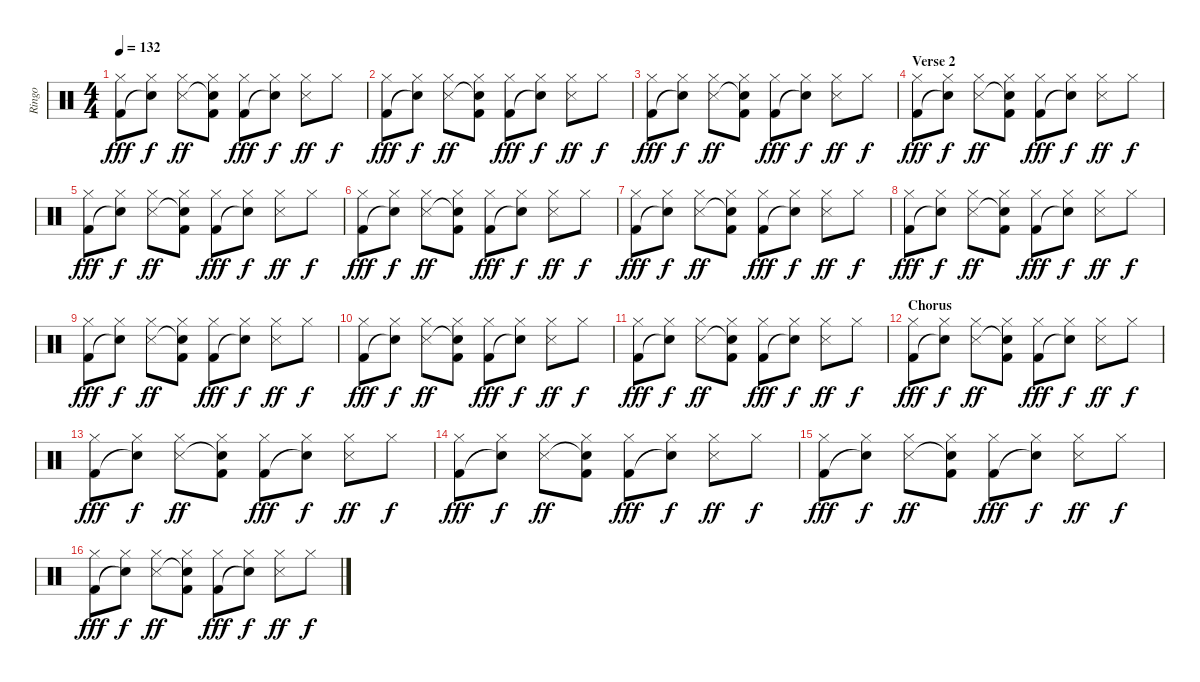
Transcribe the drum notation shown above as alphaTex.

\track ("Ringo" "Ringo") {instrument percussion}
\staff {score}
\articulation defaults
\ts (4 4)
\tempo 132
\clef neutral
\ks c
("Hi-Hat (closed)" "Kick (hit) 2").8{dy fff} ("Hi-Hat (closed)" "Snare (hit)"{t}).8{dy f} ("Hi-Hat (closed)" "Snare (side stick) 3").8{dy ff} ("Hi-Hat (closed)" "Snare (hit)"{t} "Kick (hit) 2").8 ("Hi-Hat (closed)" "Kick (hit) 2").8{dy fff} ("Hi-Hat (closed)" "Snare (hit)"{t}).8{dy f} ("Hi-Hat (closed)" "Snare (side stick) 3").8{dy ff} "Hi-Hat (closed)".8{dy f} |
("Hi-Hat (closed)" "Kick (hit) 2").8{dy fff} ("Hi-Hat (closed)" "Snare (hit)"{t}).8{dy f} ("Hi-Hat (closed)" "Snare (side stick) 3").8{dy ff} ("Hi-Hat (closed)" "Snare (hit)"{t} "Kick (hit) 2").8 ("Hi-Hat (closed)" "Kick (hit) 2").8{dy fff} ("Hi-Hat (closed)" "Snare (hit)"{t}).8{dy f} ("Hi-Hat (closed)" "Snare (side stick) 3").8{dy ff} "Hi-Hat (closed)".8{dy f} |
("Hi-Hat (closed)" "Kick (hit) 2").8{dy fff} ("Hi-Hat (closed)" "Snare (hit)"{t}).8{dy f} ("Hi-Hat (closed)" "Snare (side stick) 3").8{dy ff} ("Hi-Hat (closed)" "Snare (hit)"{t} "Kick (hit) 2").8 ("Hi-Hat (closed)" "Kick (hit) 2").8{dy fff} ("Hi-Hat (closed)" "Snare (hit)"{t}).8{dy f} ("Hi-Hat (closed)" "Snare (side stick) 3").8{dy ff} "Hi-Hat (closed)".8{dy f} |
\section ("" "Verse 2")
("Hi-Hat (closed)" "Kick (hit) 2").8{dy fff} ("Hi-Hat (closed)" "Snare (hit)"{t}).8{dy f} ("Hi-Hat (closed)" "Snare (side stick) 3").8{dy ff} ("Hi-Hat (closed)" "Snare (hit)"{t} "Kick (hit) 2").8 ("Hi-Hat (closed)" "Kick (hit) 2").8{dy fff} ("Hi-Hat (closed)" "Snare (hit)"{t}).8{dy f} ("Hi-Hat (closed)" "Snare (side stick) 3").8{dy ff} "Hi-Hat (closed)".8{dy f} |
("Hi-Hat (closed)" "Kick (hit) 2").8{dy fff} ("Hi-Hat (closed)" "Snare (hit)"{t}).8{dy f} ("Hi-Hat (closed)" "Snare (side stick) 3").8{dy ff} ("Hi-Hat (closed)" "Snare (hit)"{t} "Kick (hit) 2").8 ("Hi-Hat (closed)" "Kick (hit) 2").8{dy fff} ("Hi-Hat (closed)" "Snare (hit)"{t}).8{dy f} ("Hi-Hat (closed)" "Snare (side stick) 3").8{dy ff} "Hi-Hat (closed)".8{dy f} |
("Hi-Hat (closed)" "Kick (hit) 2").8{dy fff} ("Hi-Hat (closed)" "Snare (hit)"{t}).8{dy f} ("Hi-Hat (closed)" "Snare (side stick) 3").8{dy ff} ("Hi-Hat (closed)" "Snare (hit)"{t} "Kick (hit) 2").8 ("Hi-Hat (closed)" "Kick (hit) 2").8{dy fff} ("Hi-Hat (closed)" "Snare (hit)"{t}).8{dy f} ("Hi-Hat (closed)" "Snare (side stick) 3").8{dy ff} "Hi-Hat (closed)".8{dy f} |
("Hi-Hat (closed)" "Kick (hit) 2").8{dy fff} ("Hi-Hat (closed)" "Snare (hit)"{t}).8{dy f} ("Hi-Hat (closed)" "Snare (side stick) 3").8{dy ff} ("Hi-Hat (closed)" "Snare (hit)"{t} "Kick (hit) 2").8 ("Hi-Hat (closed)" "Kick (hit) 2").8{dy fff} ("Hi-Hat (closed)" "Snare (hit)"{t}).8{dy f} ("Hi-Hat (closed)" "Snare (side stick) 3").8{dy ff} "Hi-Hat (closed)".8{dy f} |
("Hi-Hat (closed)" "Kick (hit) 2").8{dy fff} ("Hi-Hat (closed)" "Snare (hit)"{t}).8{dy f} ("Hi-Hat (closed)" "Snare (side stick) 3").8{dy ff} ("Hi-Hat (closed)" "Snare (hit)"{t} "Kick (hit) 2").8 ("Hi-Hat (closed)" "Kick (hit) 2").8{dy fff} ("Hi-Hat (closed)" "Snare (hit)"{t}).8{dy f} ("Hi-Hat (closed)" "Snare (side stick) 3").8{dy ff} "Hi-Hat (closed)".8{dy f} |
("Hi-Hat (closed)" "Kick (hit) 2").8{dy fff} ("Hi-Hat (closed)" "Snare (hit)"{t}).8{dy f} ("Hi-Hat (closed)" "Snare (side stick) 3").8{dy ff} ("Hi-Hat (closed)" "Snare (hit)"{t} "Kick (hit) 2").8 ("Hi-Hat (closed)" "Kick (hit) 2").8{dy fff} ("Hi-Hat (closed)" "Snare (hit)"{t}).8{dy f} ("Hi-Hat (closed)" "Snare (side stick) 3").8{dy ff} "Hi-Hat (closed)".8{dy f} |
("Hi-Hat (closed)" "Kick (hit) 2").8{dy fff} ("Hi-Hat (closed)" "Snare (hit)"{t}).8{dy f} ("Hi-Hat (closed)" "Snare (side stick) 3").8{dy ff} ("Hi-Hat (closed)" "Snare (hit)"{t} "Kick (hit) 2").8 ("Hi-Hat (closed)" "Kick (hit) 2").8{dy fff} ("Hi-Hat (closed)" "Snare (hit)"{t}).8{dy f} ("Hi-Hat (closed)" "Snare (side stick) 3").8{dy ff} "Hi-Hat (closed)".8{dy f} |
("Hi-Hat (closed)" "Kick (hit) 2").8{dy fff} ("Hi-Hat (closed)" "Snare (hit)"{t}).8{dy f} ("Hi-Hat (closed)" "Snare (side stick) 3").8{dy ff} ("Hi-Hat (closed)" "Snare (hit)"{t} "Kick (hit) 2").8 ("Hi-Hat (closed)" "Kick (hit) 2").8{dy fff} ("Hi-Hat (closed)" "Snare (hit)"{t}).8{dy f} ("Hi-Hat (closed)" "Snare (side stick) 3").8{dy ff} "Hi-Hat (closed)".8{dy f} |
\section ("" "Chorus")
("Hi-Hat (closed)" "Kick (hit) 2").8{dy fff} ("Hi-Hat (closed)" "Snare (hit)"{t}).8{dy f} ("Hi-Hat (closed)" "Snare (side stick) 3").8{dy ff} ("Hi-Hat (closed)" "Snare (hit)"{t} "Kick (hit) 2").8 ("Hi-Hat (closed)" "Kick (hit) 2").8{dy fff} ("Hi-Hat (closed)" "Snare (hit)"{t}).8{dy f} ("Hi-Hat (closed)" "Snare (side stick) 3").8{dy ff} "Hi-Hat (closed)".8{dy f} |
("Hi-Hat (closed)" "Kick (hit) 2").8{dy fff} ("Hi-Hat (closed)" "Snare (hit)"{t}).8{dy f} ("Hi-Hat (closed)" "Snare (side stick) 3").8{dy ff} ("Hi-Hat (closed)" "Snare (hit)"{t} "Kick (hit) 2").8 ("Hi-Hat (closed)" "Kick (hit) 2").8{dy fff} ("Hi-Hat (closed)" "Snare (hit)"{t}).8{dy f} ("Hi-Hat (closed)" "Snare (side stick) 3").8{dy ff} "Hi-Hat (closed)".8{dy f} |
("Hi-Hat (closed)" "Kick (hit) 2").8{dy fff} ("Hi-Hat (closed)" "Snare (hit)"{t}).8{dy f} ("Hi-Hat (closed)" "Snare (side stick) 3").8{dy ff} ("Hi-Hat (closed)" "Snare (hit)"{t} "Kick (hit) 2").8 ("Hi-Hat (closed)" "Kick (hit) 2").8{dy fff} ("Hi-Hat (closed)" "Snare (hit)"{t}).8{dy f} ("Hi-Hat (closed)" "Snare (side stick) 3").8{dy ff} "Hi-Hat (closed)".8{dy f} |
("Hi-Hat (closed)" "Kick (hit) 2").8{dy fff} ("Hi-Hat (closed)" "Snare (hit)"{t}).8{dy f} ("Hi-Hat (closed)" "Snare (side stick) 3").8{dy ff} ("Hi-Hat (closed)" "Snare (hit)"{t} "Kick (hit) 2").8 ("Hi-Hat (closed)" "Kick (hit) 2").8{dy fff} ("Hi-Hat (closed)" "Snare (hit)"{t}).8{dy f} ("Hi-Hat (closed)" "Snare (side stick) 3").8{dy ff} "Hi-Hat (closed)".8{dy f} |
("Hi-Hat (closed)" "Kick (hit) 2").8{dy fff} ("Hi-Hat (closed)" "Snare (hit)"{t}).8{dy f} ("Hi-Hat (closed)" "Snare (side stick) 3").8{dy ff} ("Hi-Hat (closed)" "Snare (hit)"{t} "Kick (hit) 2").8 ("Hi-Hat (closed)" "Kick (hit) 2").8{dy fff} ("Hi-Hat (closed)" "Snare (hit)"{t}).8{dy f} ("Hi-Hat (closed)" "Snare (side stick) 3").8{dy ff} "Hi-Hat (closed)".8{dy f}
